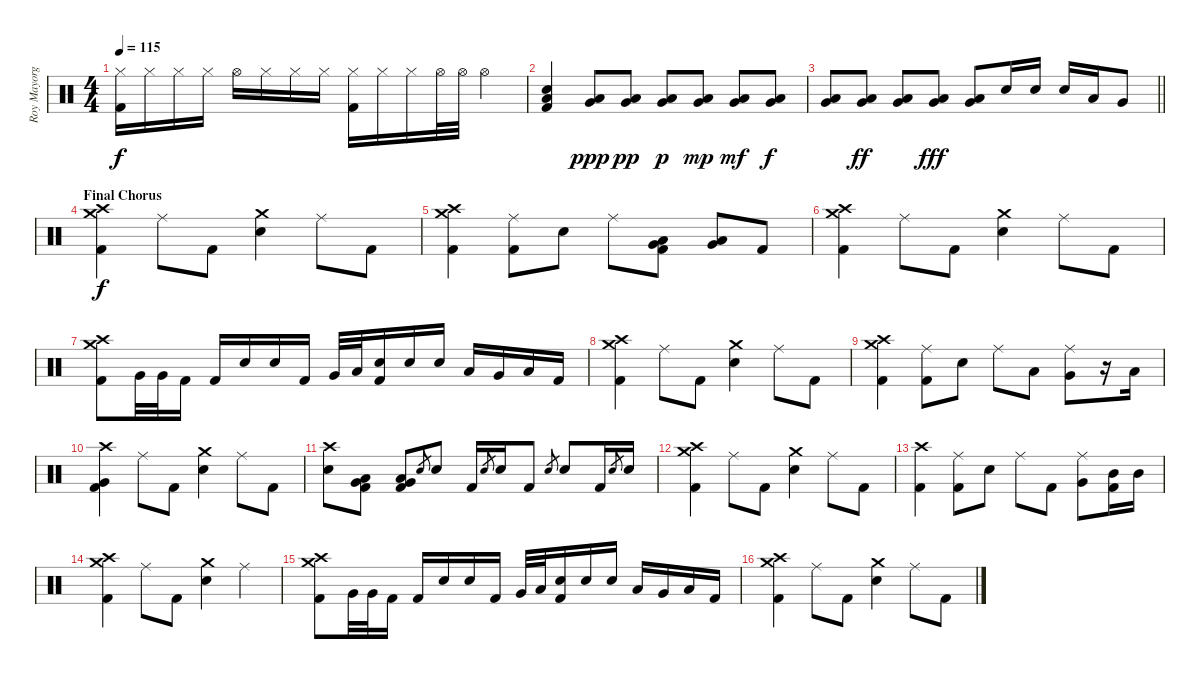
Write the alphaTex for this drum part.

\track ("Roy Mayorga" "Roy Mayorg") {instrument percussion}
\staff {score}
\articulation defaults
\ts (4 4)
\tempo 115
\clef neutral
\ks c
("Hi-Hat (closed)" "Kick (hit) 2").16{dy f} "Hi-Hat (closed)".16 "Hi-Hat (closed)".16 "Hi-Hat (closed)".16 "Hi-Hat (open)".16 "Hi-Hat (closed)".16 "Hi-Hat (closed)".16 "Hi-Hat (closed)".16 ("Hi-Hat (closed)" "Kick (hit) 2").16 "Hi-Hat (closed)".16 "Hi-Hat (closed)".16 "Hi-Hat (open)".32 "Hi-Hat (open)".32 "Hi-Hat (open)".4 |
("Low Floor Tom (hit)" "Electric Snare (hit)" "Kick (hit) 2").4 ("Very Low Tom (hit)" "Low Floor Tom (hit)").8{dy ppp} ("Very Low Tom (hit)" "Low Floor Tom (hit)").8{dy pp} ("Very Low Tom (hit)" "Low Floor Tom (hit)").8{dy p} ("Very Low Tom (hit)" "Low Floor Tom (hit)").8{dy mp} ("Very Low Tom (hit)" "Low Floor Tom (hit)").8{dy mf} ("Very Low Tom (hit)" "Low Floor Tom (hit)").8{dy f} |
\barLineRight lightlight
("Very Low Tom (hit)" "Low Floor Tom (hit)").8 ("Very Low Tom (hit)" "Low Floor Tom (hit)").8{dy ff} ("Very Low Tom (hit)" "Low Floor Tom (hit)").8 ("Very Low Tom (hit)" "Low Floor Tom (hit)").8{dy fff} ("Very Low Tom (hit)" "Low Floor Tom (hit)").8 "Electric Snare (hit)".16 "Electric Snare (hit)".16 "Electric Snare (hit)".16 "Low Tom (hit)".16 "Very Low Tom (hit)".8 |
\section ("" "Final Chorus")
("Crash high (hit)" "Crash medium (hit)" "Kick (hit) 2").4{dy f} "Ride (middle)".8 "Kick (hit) 2".8 ("Crash medium (hit)" "Electric Snare (hit)").4 "Ride (middle)".8 "Kick (hit) 2".8 |
("Crash high (hit)" "Crash medium (hit)" "Kick (hit) 2").4 ("Ride (middle)" "Kick (hit) 2").8 "Electric Snare (hit)".8 "Ride (middle)".8 ("Very Low Tom (hit)" "Low Tom (hit)" "Kick (hit) 2").8 ("Low Floor Tom (hit)" "Very Low Tom (hit)").8 "Kick (hit) 2".8 |
("Crash high (hit)" "Crash medium (hit)" "Kick (hit) 2").4 "Ride (middle)".8 "Kick (hit) 2".8 ("Crash medium (hit)" "Electric Snare (hit)").4 "Ride (middle)".8 "Kick (hit) 2".8 |
("Crash high (hit)" "Crash medium (hit)" "Kick (hit) 2").8 "Very Low Tom (hit)".32 "Very Low Tom (hit)".32 "Kick (hit) 2".16 "Kick (hit) 2".16 "Electric Snare (hit)".16 "Electric Snare (hit)".16 "Kick (hit) 2".16 "Very Low Tom (hit)".32 "Low Floor Tom (hit)".32 ("Electric Snare (hit)" "Kick (hit) 2").16 "Electric Snare (hit)".16 "Electric Snare (hit)".16 "Low Tom (hit)".16 "Very Low Tom (hit)".16 "Low Floor Tom (hit)".16 "Kick (hit) 2".16 |
("Crash high (hit)" "Crash medium (hit)" "Kick (hit) 2").4 "Ride (middle)".8 "Kick (hit) 2".8 ("Crash medium (hit)" "Electric Snare (hit)").4 "Ride (middle)".8 "Kick (hit) 2".8 |
("Crash high (hit)" "Crash medium (hit)" "Kick (hit) 2").4 ("Ride (middle)" "Kick (hit) 2").8 "Electric Snare (hit)".8 "Ride (middle)".8 "Low Tom (hit)".8 ("Ride (middle)" "Very Low Tom (hit)").8 r.16 "Low Tom (hit)".16 |
("Crash high (hit)" "Very Low Tom (hit)" "Kick (hit) 2").4 "Ride (middle)".8 "Kick (hit) 2".8 ("Crash medium (hit)" "Electric Snare (hit)").4 "Ride (middle)".8 "Kick (hit) 2".8 |
("Crash high (hit)" "Electric Snare (hit)").8 ("Very Low Tom (hit)" "Low Floor Tom (hit)" "Kick (hit) 2").8 ("Very Low Tom (hit)" "Low Floor Tom (hit)" "Kick (hit) 2").8 "Electric Snare (hit)".8{gr} "Electric Snare (hit)".8 "Kick (hit) 2".16 "Electric Snare (hit)".8{gr} "Electric Snare (hit)".16 "Kick (hit) 2".8 "Electric Snare (hit)".8{gr} "Electric Snare (hit)".8 "Kick (hit) 2".16 "Electric Snare (hit)".8{gr} "Electric Snare (hit)".16 |
("Crash high (hit)" "Crash medium (hit)" "Kick (hit) 2").4 "Ride (middle)".8 "Kick (hit) 2".8 ("Crash medium (hit)" "Electric Snare (hit)").4 "Ride (middle)".8 "Kick (hit) 2".8 |
("Crash high (hit)" "Kick (hit) 2").4 ("Ride (middle)" "Kick (hit) 2").8 "Electric Snare (hit)".8 "Ride (middle)".8 "Kick (hit) 2".8 ("Ride (middle)" "Very Low Tom (hit)").8 ("Mid Tom (hit)" "Kick (hit) 2").16 "Mid Tom (hit)".16 |
("Crash high (hit)" "Crash medium (hit)" "Kick (hit) 2").4 "Ride (middle)".8 "Kick (hit) 2".8 ("Crash medium (hit)" "Electric Snare (hit)").4 "Ride (middle)".4 |
("Crash high (hit)" "Crash medium (hit)" "Kick (hit) 2").8 "Very Low Tom (hit)".32 "Very Low Tom (hit)".32 "Kick (hit) 2".16 "Kick (hit) 2".16 "Electric Snare (hit)".16 "Electric Snare (hit)".16 "Kick (hit) 2".16 "Very Low Tom (hit)".32 "Low Floor Tom (hit)".32 ("Electric Snare (hit)" "Kick (hit) 2").16 "Electric Snare (hit)".16 "Electric Snare (hit)".16 "Low Tom (hit)".16 "Very Low Tom (hit)".16 "Low Floor Tom (hit)".16 "Kick (hit) 2".16 |
("Crash high (hit)" "Crash medium (hit)" "Kick (hit) 2").4 "Ride (middle)".8 "Kick (hit) 2".8 ("Crash medium (hit)" "Electric Snare (hit)").4 "Ride (middle)".8 "Kick (hit) 2".8
